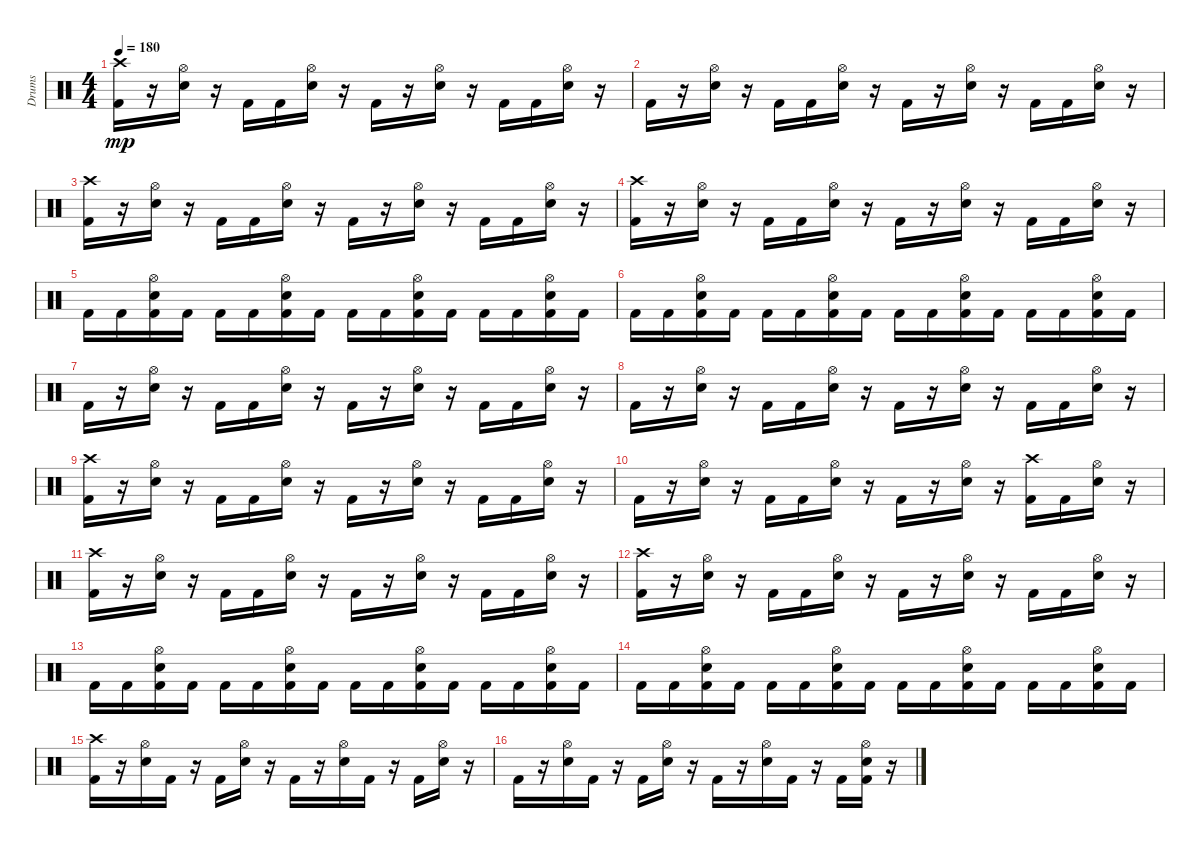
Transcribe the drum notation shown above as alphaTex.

\track ("Drums" "Drums") {instrument percussion}
\staff {score}
\articulation defaults
\ts (4 4)
\tempo 180
\clef neutral
\ks c
("Kick (hit) 2" "Crash high (hit)").16{dy mp} r.16 ("Electric Snare (hit)" "Hi-Hat (open)").16 r.16 "Kick (hit) 2".16 "Kick (hit) 2".16 ("Electric Snare (hit)" "Hi-Hat (open)").16 r.16 "Kick (hit) 2".16 r.16 ("Electric Snare (hit)" "Hi-Hat (open)").16 r.16 "Kick (hit) 2".16 "Kick (hit) 2".16 ("Hi-Hat (open)" "Electric Snare (hit)").16 r.16 |
"Kick (hit) 2".16 r.16 ("Electric Snare (hit)" "Hi-Hat (open)").16 r.16 "Kick (hit) 2".16 "Kick (hit) 2".16 ("Hi-Hat (open)" "Electric Snare (hit)").16 r.16 "Kick (hit) 2".16 r.16 ("Hi-Hat (open)" "Electric Snare (hit)").16 r.16 "Kick (hit) 2".16 "Kick (hit) 2".16 ("Electric Snare (hit)" "Hi-Hat (open)").16 r.16 |
("Crash high (hit)" "Kick (hit) 2").16 r.16 ("Hi-Hat (open)" "Electric Snare (hit)").16 r.16 "Kick (hit) 2".16 "Kick (hit) 2".16 ("Electric Snare (hit)" "Hi-Hat (open)").16 r.16 "Kick (hit) 2".16 r.16 ("Hi-Hat (open)" "Electric Snare (hit)").16 r.16 "Kick (hit) 2".16 "Kick (hit) 2".16 ("Hi-Hat (open)" "Electric Snare (hit)").16 r.16 |
("Crash high (hit)" "Kick (hit) 2").16 r.16 ("Electric Snare (hit)" "Hi-Hat (open)").16 r.16 "Kick (hit) 2".16 "Kick (hit) 2".16 ("Electric Snare (hit)" "Hi-Hat (open)").16 r.16 "Kick (hit) 2".16 r.16 ("Electric Snare (hit)" "Hi-Hat (open)").16 r.16 "Kick (hit) 2".16 "Kick (hit) 2".16 ("Electric Snare (hit)" "Hi-Hat (open)").16 r.16 |
"Kick (hit) 2".16 "Kick (hit) 2".16 ("Hi-Hat (open)" "Kick (hit) 2" "Electric Snare (hit)").16 "Kick (hit) 2".16 "Kick (hit) 2".16 "Kick (hit) 2".16 ("Hi-Hat (open)" "Electric Snare (hit)" "Kick (hit) 2").16 "Kick (hit) 2".16 "Kick (hit) 2".16 "Kick (hit) 2".16 ("Hi-Hat (open)" "Kick (hit) 2" "Electric Snare (hit)").16 "Kick (hit) 2".16 "Kick (hit) 2".16 "Kick (hit) 2".16 ("Kick (hit) 2" "Electric Snare (hit)" "Hi-Hat (open)").16 "Kick (hit) 2".16 |
"Kick (hit) 2".16 "Kick (hit) 2".16 ("Hi-Hat (open)" "Electric Snare (hit)" "Kick (hit) 2").16 "Kick (hit) 2".16 "Kick (hit) 2".16 "Kick (hit) 2".16 ("Kick (hit) 2" "Hi-Hat (open)" "Electric Snare (hit)").16 "Kick (hit) 2".16 "Kick (hit) 2".16 "Kick (hit) 2".16 ("Electric Snare (hit)" "Hi-Hat (open)" "Kick (hit) 2").16 "Kick (hit) 2".16 "Kick (hit) 2".16 "Kick (hit) 2".16 ("Hi-Hat (open)" "Electric Snare (hit)" "Kick (hit) 2").16 "Kick (hit) 2".16 |
"Kick (hit) 2".16 r.16 ("Hi-Hat (open)" "Electric Snare (hit)").16 r.16 "Kick (hit) 2".16 "Kick (hit) 2".16 ("Electric Snare (hit)" "Hi-Hat (open)").16 r.16 "Kick (hit) 2".16 r.16 ("Hi-Hat (open)" "Electric Snare (hit)").16 r.16 "Kick (hit) 2".16 "Kick (hit) 2".16 ("Hi-Hat (open)" "Electric Snare (hit)").16 r.16 |
"Kick (hit) 2".16 r.16 ("Electric Snare (hit)" "Hi-Hat (open)").16 r.16 "Kick (hit) 2".16 "Kick (hit) 2".16 ("Hi-Hat (open)" "Electric Snare (hit)").16 r.16 "Kick (hit) 2".16 r.16 ("Hi-Hat (open)" "Electric Snare (hit)").16 r.16 "Kick (hit) 2".16 "Kick (hit) 2".16 ("Electric Snare (hit)" "Hi-Hat (open)").16 r.16 |
("Kick (hit) 2" "Crash high (hit)").16 r.16 ("Hi-Hat (open)" "Electric Snare (hit)").16 r.16 "Kick (hit) 2".16 "Kick (hit) 2".16 ("Electric Snare (hit)" "Hi-Hat (open)").16 r.16 "Kick (hit) 2".16 r.16 ("Hi-Hat (open)" "Electric Snare (hit)").16 r.16 "Kick (hit) 2".16 "Kick (hit) 2".16 ("Electric Snare (hit)" "Hi-Hat (open)").16 r.16 |
"Kick (hit) 2".16 r.16 ("Electric Snare (hit)" "Hi-Hat (open)").16 r.16 "Kick (hit) 2".16 "Kick (hit) 2".16 ("Hi-Hat (open)" "Electric Snare (hit)").16 r.16 "Kick (hit) 2".16 r.16 ("Electric Snare (hit)" "Hi-Hat (open)").16 r.16 ("Crash high (hit)" "Kick (hit) 2").16 "Kick (hit) 2".16 ("Electric Snare (hit)" "Hi-Hat (open)").16 r.16 |
("Kick (hit) 2" "Crash high (hit)").16 r.16 ("Hi-Hat (open)" "Electric Snare (hit)").16 r.16 "Kick (hit) 2".16 "Kick (hit) 2".16 ("Electric Snare (hit)" "Hi-Hat (open)").16 r.16 "Kick (hit) 2".16 r.16 ("Hi-Hat (open)" "Electric Snare (hit)").16 r.16 "Kick (hit) 2".16 "Kick (hit) 2".16 ("Hi-Hat (open)" "Electric Snare (hit)").16 r.16 |
("Crash high (hit)" "Kick (hit) 2").16 r.16 ("Hi-Hat (open)" "Electric Snare (hit)").16 r.16 "Kick (hit) 2".16 "Kick (hit) 2".16 ("Hi-Hat (open)" "Electric Snare (hit)").16 r.16 "Kick (hit) 2".16 r.16 ("Hi-Hat (open)" "Electric Snare (hit)").16 r.16 "Kick (hit) 2".16 "Kick (hit) 2".16 ("Hi-Hat (open)" "Electric Snare (hit)").16 r.16 |
"Kick (hit) 2".16 "Kick (hit) 2".16 ("Electric Snare (hit)" "Hi-Hat (open)" "Kick (hit) 2").16 "Kick (hit) 2".16 "Kick (hit) 2".16 "Kick (hit) 2".16 ("Hi-Hat (open)" "Electric Snare (hit)" "Kick (hit) 2").16 "Kick (hit) 2".16 "Kick (hit) 2".16 "Kick (hit) 2".16 ("Hi-Hat (open)" "Electric Snare (hit)" "Kick (hit) 2").16 "Kick (hit) 2".16 "Kick (hit) 2".16 "Kick (hit) 2".16 ("Electric Snare (hit)" "Hi-Hat (open)" "Kick (hit) 2").16 "Kick (hit) 2".16 |
"Kick (hit) 2".16 "Kick (hit) 2".16 ("Electric Snare (hit)" "Hi-Hat (open)" "Kick (hit) 2").16 "Kick (hit) 2".16 "Kick (hit) 2".16 "Kick (hit) 2".16 ("Electric Snare (hit)" "Hi-Hat (open)" "Kick (hit) 2").16 "Kick (hit) 2".16 "Kick (hit) 2".16 "Kick (hit) 2".16 ("Electric Snare (hit)" "Hi-Hat (open)" "Kick (hit) 2").16 "Kick (hit) 2".16 "Kick (hit) 2".16 "Kick (hit) 2".16 ("Hi-Hat (open)" "Electric Snare (hit)" "Kick (hit) 2").16 "Kick (hit) 2".16 |
("Crash high (hit)" "Kick (hit) 2").16 r.16 ("Hi-Hat (open)" "Electric Snare (hit)").16 "Kick (hit) 2".16 r.16 "Kick (hit) 2".16 ("Hi-Hat (open)" "Electric Snare (hit)").16 r.16 "Kick (hit) 2".16 r.16 ("Hi-Hat (open)" "Electric Snare (hit)").16 "Kick (hit) 2".16 r.16 "Kick (hit) 2".16 ("Electric Snare (hit)" "Hi-Hat (open)").16 r.16 |
"Kick (hit) 2".16 r.16 ("Hi-Hat (open)" "Electric Snare (hit)").16 "Kick (hit) 2".16 r.16 "Kick (hit) 2".16 ("Electric Snare (hit)" "Hi-Hat (open)").16 r.16 "Kick (hit) 2".16 r.16 ("Hi-Hat (open)" "Electric Snare (hit)").16 "Kick (hit) 2".16 r.16 "Kick (hit) 2".16 ("Electric Snare (hit)" "Kick (hit) 2" "Hi-Hat (open)").16 r.16
